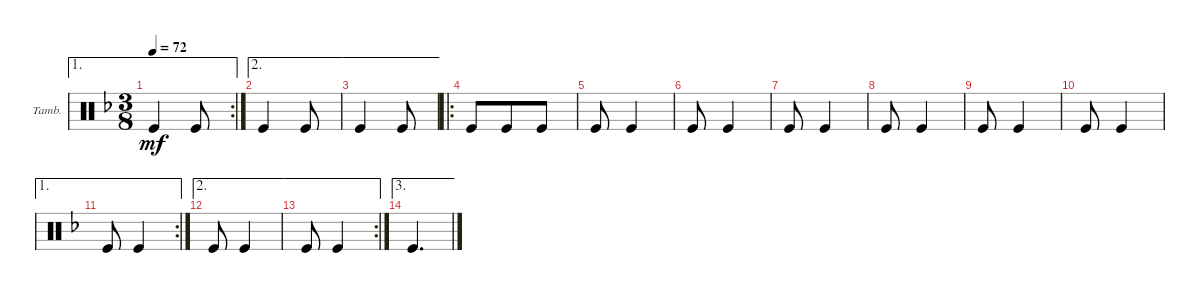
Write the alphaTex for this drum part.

\defaultSystemsLayout 4
\bracketExtendMode groupsimilarinstruments
\firstSystemTrackNameOrientation horizontal
\otherSystemsTrackNameOrientation horizontal
\track ("Tambourine" "Tamb.") {instrument percussion}
\staff {score}
\articulation defaults
\ae 1
\rc 2
\ts (3 8)
\tempo 72
\clef neutral
\scale
0.356322
\ks f "Kick (hit)".4{dy mf} "Kick (hit)".8
|
\ae 2
\scale
0.321839 "Kick (hit)".4 "Kick (hit)".8 |
\ae 2
\scale
0.311111 "Kick (hit)".4 "Kick (hit)".8 |
\ro
\scale
0.377778 "Kick (hit)".8 "Kick (hit)".8 "Kick (hit)".8 |
\scale
0.311111 "Kick (hit)".8 "Kick (hit)".4 |
\scale
0.333333 "Kick (hit)".8 "Kick (hit)".4 |
\scale
0.333333 "Kick (hit)".8 "Kick (hit)".4 |
\scale
0.333333 "Kick (hit)".8 "Kick (hit)".4 |
\scale
0.321839 "Kick (hit)".8 "Kick (hit)".4 |
\scale
0.321839 "Kick (hit)".8 "Kick (hit)".4 |
\ae 1
\rc 2
\scale
0.356322 "Kick (hit)".8 "Kick (hit)".4 |
\ae 2 "Kick (hit)".8 "Kick (hit)".4
|
\ae 2
\rc 2 "Kick (hit)".8 "Kick (hit)".4
|
\ae 3 "Kick (hit)".4{d}
